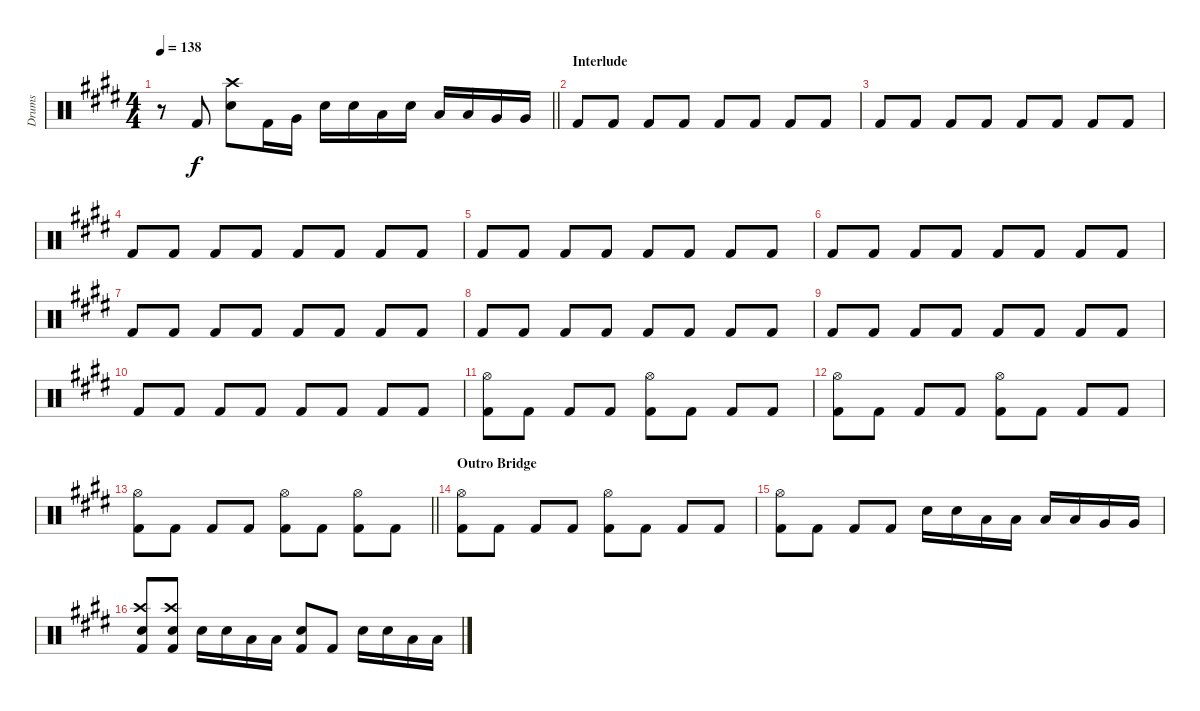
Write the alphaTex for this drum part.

\track ("Drums" "Drums") {instrument percussion}
\staff {score}
\articulation defaults
\ts (4 4)
\tempo 138
\clef neutral
\barLineRight lightlight
\ks c#minor
r.8{dy f} "Kick (hit) 2".8 ("Crash high (hit)" "Snare (hit) 2").8 "Kick (hit) 2".16 "Very Low Tom (hit)".16 "Snare (hit) 2".16 "Snare (hit) 2".16 "Low Tom (hit)".16 "Snare (hit) 2".16 "Low Tom (hit)".16 "Low Tom (hit)".16 "Very Low Tom (hit)".16 "Very Low Tom (hit)".16 |
\section ("" "Interlude")
"Kick (hit) 2".8 "Kick (hit) 2".8 "Kick (hit) 2".8 "Kick (hit) 2".8 "Kick (hit) 2".8 "Kick (hit) 2".8 "Kick (hit) 2".8 "Kick (hit) 2".8 |
"Kick (hit) 2".8 "Kick (hit) 2".8 "Kick (hit) 2".8 "Kick (hit) 2".8 "Kick (hit) 2".8 "Kick (hit) 2".8 "Kick (hit) 2".8 "Kick (hit) 2".8 |
"Kick (hit) 2".8 "Kick (hit) 2".8 "Kick (hit) 2".8 "Kick (hit) 2".8 "Kick (hit) 2".8 "Kick (hit) 2".8 "Kick (hit) 2".8 "Kick (hit) 2".8 |
"Kick (hit) 2".8 "Kick (hit) 2".8 "Kick (hit) 2".8 "Kick (hit) 2".8 "Kick (hit) 2".8 "Kick (hit) 2".8 "Kick (hit) 2".8 "Kick (hit) 2".8 |
"Kick (hit) 2".8 "Kick (hit) 2".8 "Kick (hit) 2".8 "Kick (hit) 2".8 "Kick (hit) 2".8 "Kick (hit) 2".8 "Kick (hit) 2".8 "Kick (hit) 2".8 |
"Kick (hit) 2".8 "Kick (hit) 2".8 "Kick (hit) 2".8 "Kick (hit) 2".8 "Kick (hit) 2".8 "Kick (hit) 2".8 "Kick (hit) 2".8 "Kick (hit) 2".8 |
"Kick (hit) 2".8 "Kick (hit) 2".8 "Kick (hit) 2".8 "Kick (hit) 2".8 "Kick (hit) 2".8 "Kick (hit) 2".8 "Kick (hit) 2".8 "Kick (hit) 2".8 |
"Kick (hit) 2".8 "Kick (hit) 2".8 "Kick (hit) 2".8 "Kick (hit) 2".8 "Kick (hit) 2".8 "Kick (hit) 2".8 "Kick (hit) 2".8 "Kick (hit) 2".8 |
"Kick (hit) 2".8 "Kick (hit) 2".8 "Kick (hit) 2".8 "Kick (hit) 2".8 "Kick (hit) 2".8 "Kick (hit) 2".8 "Kick (hit) 2".8 "Kick (hit) 2".8 |
("Hi-Hat (open)" "Kick (hit) 2").8 "Kick (hit) 2".8 "Kick (hit) 2".8 "Kick (hit) 2".8 ("Hi-Hat (open)" "Kick (hit) 2").8 "Kick (hit) 2".8 "Kick (hit) 2".8 "Kick (hit) 2".8 |
("Hi-Hat (open)" "Kick (hit) 2").8 "Kick (hit) 2".8 "Kick (hit) 2".8 "Kick (hit) 2".8 ("Hi-Hat (open)" "Kick (hit) 2").8 "Kick (hit) 2".8 "Kick (hit) 2".8 "Kick (hit) 2".8 |
\barLineRight lightlight
("Hi-Hat (open)" "Kick (hit) 2").8 "Kick (hit) 2".8 "Kick (hit) 2".8 "Kick (hit) 2".8 ("Hi-Hat (open)" "Kick (hit) 2").8 "Kick (hit) 2".8 ("Hi-Hat (open)" "Kick (hit) 2").8 "Kick (hit) 2".8 |
\section ("" "Outro Bridge")
\ks e
("Hi-Hat (open)" "Kick (hit) 2").8 "Kick (hit) 2".8 "Kick (hit) 2".8 "Kick (hit) 2".8 ("Hi-Hat (open)" "Kick (hit) 2").8 "Kick (hit) 2".8 "Kick (hit) 2".8 "Kick (hit) 2".8 |
\ks c#minor
("Hi-Hat (open)" "Kick (hit) 2").8 "Kick (hit) 2".8 "Kick (hit) 2".8 "Kick (hit) 2".8 "Snare (hit) 2".16 "Snare (hit) 2".16 "Low Tom (hit)".16 "Low Tom (hit)".16 "Low Tom (hit)".16 "Low Tom (hit)".16 "Very Low Tom (hit)".16 "Very Low Tom (hit)".16 |
("Crash high (hit)" "Snare (hit) 2" "Kick (hit) 2").8 ("Crash high (hit)" "Snare (hit) 2" "Kick (hit) 2").8 "Snare (hit) 2".16 "Snare (hit) 2".16 "Low Tom (hit)".16 "Low Tom (hit)".16 ("Snare (hit) 2" "Kick (hit) 2").8 "Kick (hit) 2".8 "Snare (hit) 2".16 "Snare (hit) 2".16 "Low Tom (hit)".16 "Low Tom (hit)".16
